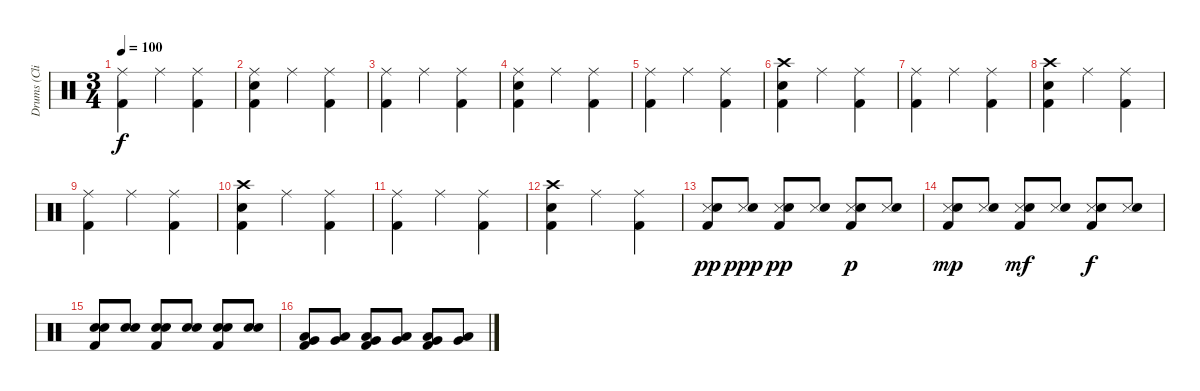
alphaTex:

\track ("Drums (Clive Bunker)" "Drums (Cli") {instrument percussion}
\staff {score}
\articulation defaults
\ts (3 4)
\tempo 100
\clef neutral
\ks c
("Ride (middle)" "Kick (hit) 2").4{dy f} "Ride (middle)".4 ("Ride (middle)" "Kick (hit) 2").4 |
("Ride (middle)" "Snare (hit) 2" "Kick (hit) 2").4 "Ride (middle)".4 ("Ride (middle)" "Kick (hit) 2").4 |
("Ride (middle)" "Kick (hit) 2").4 "Ride (middle)".4 ("Ride (middle)" "Kick (hit) 2").4 |
("Ride (middle)" "Snare (hit) 2" "Kick (hit) 2").4 "Ride (middle)".4 ("Ride (middle)" "Kick (hit) 2").4 |
("Ride (middle)" "Kick (hit) 2").4 "Ride (middle)".4 ("Ride (middle)" "Kick (hit) 2").4 |
("Crash high (hit)" "Snare (hit) 2" "Kick (hit) 2").4 "Ride (middle)".4 ("Ride (middle)" "Kick (hit) 2").4 |
("Ride (middle)" "Kick (hit) 2").4 "Ride (middle)".4 ("Ride (middle)" "Kick (hit) 2").4 |
("Crash high (hit)" "Snare (hit) 2" "Kick (hit) 2").4 "Ride (middle)".4 ("Ride (middle)" "Kick (hit) 2").4 |
("Ride (middle)" "Kick (hit) 2").4 "Ride (middle)".4 ("Ride (middle)" "Kick (hit) 2").4 |
("Crash high (hit)" "Snare (hit) 2" "Kick (hit) 2").4 "Ride (middle)".4 ("Ride (middle)" "Kick (hit) 2").4 |
("Ride (middle)" "Kick (hit) 2").4 "Ride (middle)".4 ("Ride (middle)" "Kick (hit) 2").4 |
("Crash high (hit)" "Snare (hit) 2" "Kick (hit) 2").4 "Ride (middle)".4 ("Ride (middle)" "Kick (hit) 2").4 |
("Snare (side stick) 3" "Snare (hit) 2" "Kick (hit) 2").8{dy pp} ("Snare (side stick) 3" "Snare (hit) 2").8{dy ppp} ("Snare (side stick) 3" "Snare (hit) 2" "Kick (hit) 2").8{dy pp} ("Snare (side stick) 3" "Snare (hit) 2").8 ("Snare (side stick) 3" "Snare (hit) 2" "Kick (hit) 2").8{dy p} ("Snare (side stick) 3" "Snare (hit) 2").8 |
("Snare (side stick) 3" "Snare (hit) 2" "Kick (hit) 2").8{dy mp} ("Snare (side stick) 3" "Snare (hit) 2").8 ("Snare (side stick) 3" "Snare (hit) 2" "Kick (hit) 2").8{dy mf} ("Snare (side stick) 3" "Snare (hit) 2").8 ("Snare (side stick) 3" "Snare (hit) 2" "Kick (hit) 2").8{dy f} ("Snare (side stick) 3" "Snare (hit) 2").8 |
("Snare (hit) 2" "Electric Snare (hit)" "Kick (hit) 2").8 ("Snare (hit) 2" "Electric Snare (hit)").8 ("Snare (hit) 2" "Electric Snare (hit)" "Kick (hit) 2").8 ("Snare (hit) 2" "Electric Snare (hit)").8 ("Snare (hit) 2" "Electric Snare (hit)" "Kick (hit) 2").8 ("Snare (hit) 2" "Electric Snare (hit)").8 |
("Very Low Tom (hit)" "Low Floor Tom (hit)" "Kick (hit) 2").8 ("Very Low Tom (hit)" "Low Floor Tom (hit)").8 ("Very Low Tom (hit)" "Low Floor Tom (hit)" "Kick (hit) 2").8 ("Very Low Tom (hit)" "Low Floor Tom (hit)").8 ("Very Low Tom (hit)" "Low Floor Tom (hit)" "Kick (hit) 2").8 ("Very Low Tom (hit)" "Low Floor Tom (hit)").8
